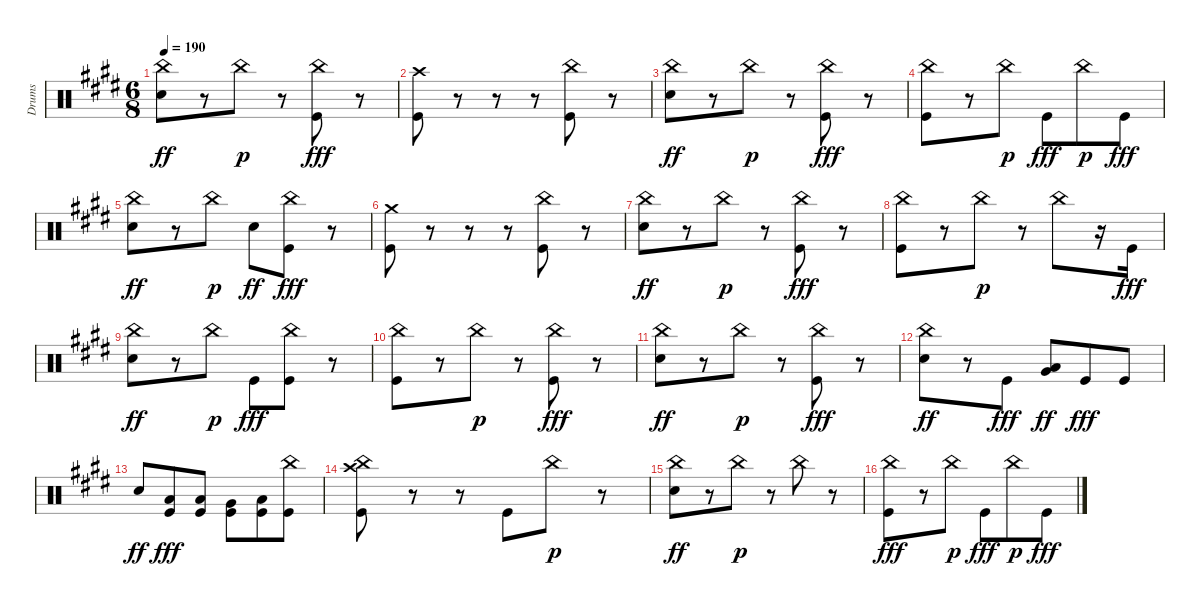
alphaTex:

\track ("Drums" "Drums") {instrument percussion}
\staff {score}
\articulation defaults
\ts (6 8)
\tempo 190
\clef neutral
\ks c#minor
("China (hit)" "Snare (hit) 2").8{dy ff} r.8 "China (hit)".8{dy p} r.8 ("China (hit)" "Kick (hit)").8{dy fff} r.8 |
("Crash high (hit)" "Kick (hit)").8 r.8 r.8 r.8 ("China (hit)" "Kick (hit)").8 r.8 |
("China (hit)" "Snare (hit) 2").8{dy ff} r.8 "China (hit)".8{dy p} r.8 ("China (hit)" "Kick (hit)").8{dy fff} r.8 |
("China (hit)" "Kick (hit)").8 r.8 "China (hit)".8{dy p} "Kick (hit)".8{dy fff} "China (hit)".8{dy p} "Kick (hit)".8{dy fff} |
("China (hit)" "Snare (hit) 2").8{dy ff} r.8 "China (hit)".8{dy p} "Snare (hit) 2".8{dy ff} ("China (hit)" "Kick (hit)").8{dy fff} r.8 |
("Crash medium (hit)" "Kick (hit)").8 r.8 r.8 r.8 ("China (hit)" "Kick (hit)").8 r.8 |
("China (hit)" "Snare (hit) 2").8{dy ff} r.8 "China (hit)".8{dy p} r.8 ("China (hit)" "Kick (hit)").8{dy fff} r.8 |
("China (hit)" "Kick (hit)").8 r.8 "China (hit)".8{dy p} r.8 "China (hit)".8 r.16 "Kick (hit)".16{dy fff} |
("China (hit)" "Snare (hit) 2").8{dy ff} r.8 "China (hit)".8{dy p} "Kick (hit)".8{dy fff} ("China (hit)" "Kick (hit)").8 r.8 |
("China (hit)" "Kick (hit)").8 r.8 "China (hit)".8{dy p} r.8 ("China (hit)" "Kick (hit)").8{dy fff} r.8 |
("China (hit)" "Snare (hit) 2").8{dy ff} r.8 "China (hit)".8{dy p} r.8 ("China (hit)" "Kick (hit)").8{dy fff} r.8 |
("China (hit)" "Snare (hit) 2").8{dy ff} r.8 "Kick (hit)".8{dy fff} ("Low Tom (hit)" "Very Low Tom (hit)").8{dy ff} "Kick (hit)".8{dy fff} "Kick (hit)".8 |
"Snare (hit) 2".8{dy ff} ("Low Tom (hit)" "Kick (hit)").8{dy fff} ("Low Tom (hit)" "Kick (hit)").8 ("Very Low Tom (hit)" "Kick (hit)").8 ("Low Floor Tom (hit)" "Kick (hit)").8 ("China (hit)" "Kick (hit)").8 |
("Crash high (hit)" "China (hit)" "Kick (hit)").8 r.8 r.8 "Kick (hit)".8 "China (hit)".8{dy p} r.8 |
("China (hit)" "Snare (hit) 2").8{dy ff} r.8 "China (hit)".8{dy p} r.8 "China (hit)".8 r.8 |
("China (hit)" "Kick (hit)").8{dy fff} r.8 "China (hit)".8{dy p} "Kick (hit)".8{dy fff} "China (hit)".8{dy p} "Kick (hit)".8{dy fff}
